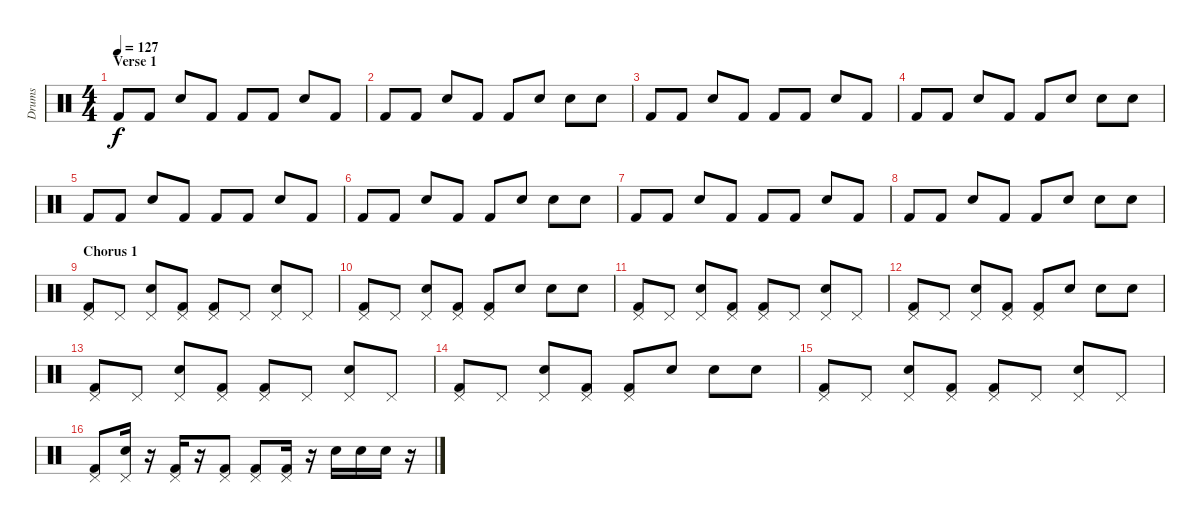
\track ("Drums" "Drums") {instrument percussion}
\staff {score}
\articulation defaults
\ts (4 4)
\section ("" "Verse 1")
\tempo 127
\clef neutral
\ks c "Kick (hit) 2".8{dy f} "Kick (hit) 2".8 "Snare (hit) 2".8 "Kick (hit) 2".8 "Kick (hit) 2".8 "Kick (hit) 2".8 "Snare (hit) 2".8 "Kick (hit) 2".8
|
"Kick (hit) 2".8 "Kick (hit) 2".8 "Snare (hit) 2".8 "Kick (hit) 2".8 "Kick (hit) 2".8 "Snare (hit) 2".8 "Snare (hit) 2".8 "Snare (hit) 2".8 |
"Kick (hit) 2".8 "Kick (hit) 2".8 "Snare (hit) 2".8 "Kick (hit) 2".8 "Kick (hit) 2".8 "Kick (hit) 2".8 "Snare (hit) 2".8 "Kick (hit) 2".8 |
"Kick (hit) 2".8 "Kick (hit) 2".8 "Snare (hit) 2".8 "Kick (hit) 2".8 "Kick (hit) 2".8 "Snare (hit) 2".8 "Snare (hit) 2".8 "Snare (hit) 2".8 |
"Kick (hit) 2".8 "Kick (hit) 2".8 "Snare (hit) 2".8 "Kick (hit) 2".8 "Kick (hit) 2".8 "Kick (hit) 2".8 "Snare (hit) 2".8 "Kick (hit) 2".8 |
"Kick (hit) 2".8 "Kick (hit) 2".8 "Snare (hit) 2".8 "Kick (hit) 2".8 "Kick (hit) 2".8 "Snare (hit) 2".8 "Snare (hit) 2".8 "Snare (hit) 2".8 |
"Kick (hit) 2".8 "Kick (hit) 2".8 "Snare (hit) 2".8 "Kick (hit) 2".8 "Kick (hit) 2".8 "Kick (hit) 2".8 "Snare (hit) 2".8 "Kick (hit) 2".8 |
"Kick (hit) 2".8 "Kick (hit) 2".8 "Snare (hit) 2".8 "Kick (hit) 2".8 "Kick (hit) 2".8 "Snare (hit) 2".8 "Snare (hit) 2".8 "Snare (hit) 2".8 |
\section ("" "Chorus 1")
("Pedal Hi-Hat (hit)" "Kick (hit) 2").8 "Pedal Hi-Hat (hit)".8 ("Pedal Hi-Hat (hit)" "Snare (hit) 2").8 ("Pedal Hi-Hat (hit)" "Kick (hit) 2").8 ("Pedal Hi-Hat (hit)" "Kick (hit) 2").8 "Pedal Hi-Hat (hit)".8 ("Pedal Hi-Hat (hit)" "Snare (hit) 2").8 "Pedal Hi-Hat (hit)".8 |
("Pedal Hi-Hat (hit)" "Kick (hit) 2").8 "Pedal Hi-Hat (hit)".8 ("Pedal Hi-Hat (hit)" "Snare (hit) 2").8 ("Pedal Hi-Hat (hit)" "Kick (hit) 2").8 ("Pedal Hi-Hat (hit)" "Kick (hit) 2").8 "Snare (hit) 2".8 "Snare (hit) 2".8 "Snare (hit) 2".8 |
("Pedal Hi-Hat (hit)" "Kick (hit) 2").8 "Pedal Hi-Hat (hit)".8 ("Pedal Hi-Hat (hit)" "Snare (hit) 2").8 ("Pedal Hi-Hat (hit)" "Kick (hit) 2").8 ("Pedal Hi-Hat (hit)" "Kick (hit) 2").8 "Pedal Hi-Hat (hit)".8 ("Pedal Hi-Hat (hit)" "Snare (hit) 2").8 "Pedal Hi-Hat (hit)".8 |
("Pedal Hi-Hat (hit)" "Kick (hit) 2").8 "Pedal Hi-Hat (hit)".8 ("Pedal Hi-Hat (hit)" "Snare (hit) 2").8 ("Pedal Hi-Hat (hit)" "Kick (hit) 2").8 ("Pedal Hi-Hat (hit)" "Kick (hit) 2").8 "Snare (hit) 2".8 "Snare (hit) 2".8 "Snare (hit) 2".8 |
("Pedal Hi-Hat (hit)" "Kick (hit) 2").8 "Pedal Hi-Hat (hit)".8 ("Pedal Hi-Hat (hit)" "Snare (hit) 2").8 ("Pedal Hi-Hat (hit)" "Kick (hit) 2").8 ("Pedal Hi-Hat (hit)" "Kick (hit) 2").8 "Pedal Hi-Hat (hit)".8 ("Pedal Hi-Hat (hit)" "Snare (hit) 2").8 "Pedal Hi-Hat (hit)".8 |
("Pedal Hi-Hat (hit)" "Kick (hit) 2").8 "Pedal Hi-Hat (hit)".8 ("Pedal Hi-Hat (hit)" "Snare (hit) 2").8 ("Pedal Hi-Hat (hit)" "Kick (hit) 2").8 ("Pedal Hi-Hat (hit)" "Kick (hit) 2").8 "Snare (hit) 2".8 "Snare (hit) 2".8 "Snare (hit) 2".8 |
("Pedal Hi-Hat (hit)" "Kick (hit) 2").8 "Pedal Hi-Hat (hit)".8 ("Pedal Hi-Hat (hit)" "Snare (hit) 2").8 ("Pedal Hi-Hat (hit)" "Kick (hit) 2").8 ("Pedal Hi-Hat (hit)" "Kick (hit) 2").8 "Pedal Hi-Hat (hit)".8 ("Pedal Hi-Hat (hit)" "Snare (hit) 2").8 "Pedal Hi-Hat (hit)".8 |
("Pedal Hi-Hat (hit)" "Kick (hit) 2").8 ("Pedal Hi-Hat (hit)" "Snare (hit) 2").16 r.16 ("Pedal Hi-Hat (hit)" "Kick (hit) 2").16 r.16 ("Pedal Hi-Hat (hit)" "Kick (hit) 2").8 ("Pedal Hi-Hat (hit)" "Kick (hit) 2").8 ("Pedal Hi-Hat (hit)" "Kick (hit) 2").16 r.16 "Snare (hit) 2".16 "Snare (hit) 2".16 "Snare (hit) 2".16 r.16
